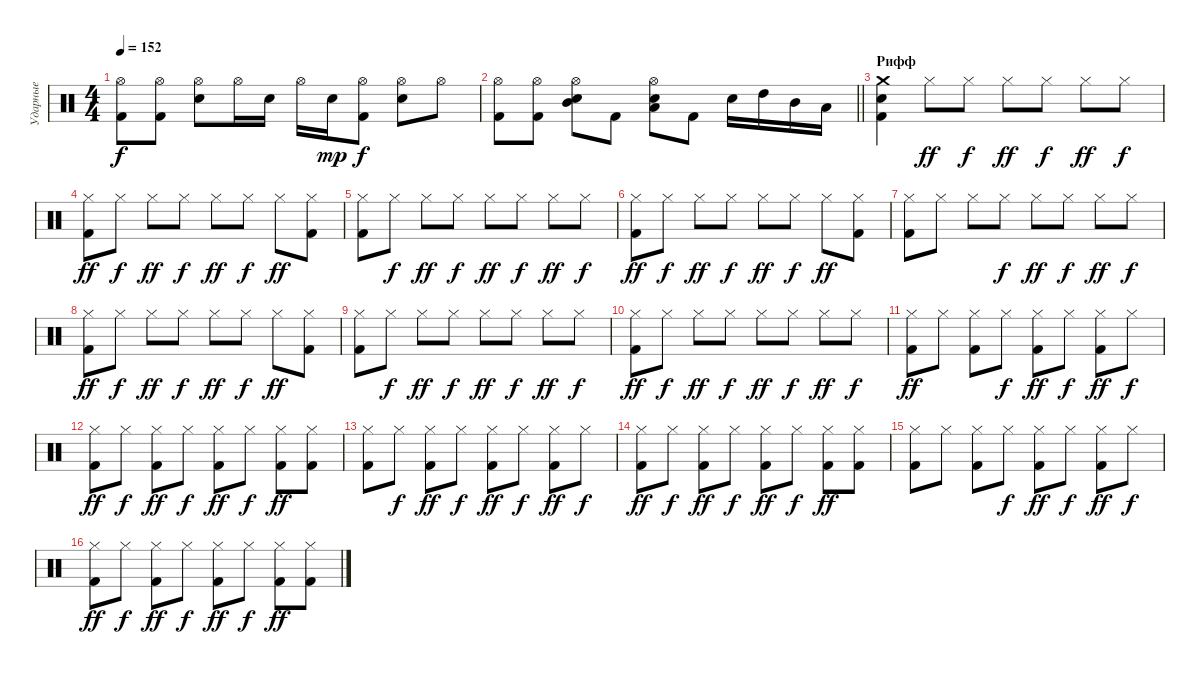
\track ("Ударные" "Ударные") {instrument percussion}
\staff {score}
\articulation defaults
\ts (4 4)
\tempo 152
\clef neutral
\ks c
("Hi-Hat (open)" "Kick (hit) 2").8{dy f} ("Hi-Hat (open)" "Kick (hit) 2").8 ("Hi-Hat (open)" "Snare (hit) 2").8 "Hi-Hat (open)".16 "Snare (hit) 2".16 "Hi-Hat (open)".16 "Snare (hit) 2".16{dy mp} ("Hi-Hat (open)" "Kick (hit) 2").8{dy f} ("Hi-Hat (open)" "Snare (hit) 2").8 "Hi-Hat (open)".8 |
\barLineRight lightlight
("Hi-Hat (open)" "Kick (hit) 2").8 ("Hi-Hat (open)" "Kick (hit) 2").8 ("Hi-Hat (open)" "Snare (hit) 2" "Mid Tom (hit)").8 "Kick (hit) 2".8 ("Hi-Hat (open)" "Snare (hit) 2" "Low Tom (hit)").8 "Kick (hit) 2".8 "Snare (hit) 2".16 "High Tom (hit)".16 "Mid Tom (hit)".16 "Low Tom (hit)".16 |
\section ("" "Рифф")
("Crash medium (hit)" "Snare (hit) 2" "Kick (hit) 2").4 "Hi-Hat (closed)".8{dy ff} "Hi-Hat (closed)".8{dy f} "Hi-Hat (closed)".8{dy ff} "Hi-Hat (closed)".8{dy f} "Hi-Hat (closed)".8{dy ff} "Hi-Hat (closed)".8{dy f} |
("Hi-Hat (closed)" "Kick (hit) 2").8{dy ff} "Hi-Hat (closed)".8{dy f} "Hi-Hat (closed)".8{dy ff} "Hi-Hat (closed)".8{dy f} "Hi-Hat (closed)".8{dy ff} "Hi-Hat (closed)".8{dy f} "Hi-Hat (closed)".8{dy ff} ("Hi-Hat (closed)" "Kick (hit) 2").8 |
("Hi-Hat (closed)" "Kick (hit) 2").8 "Hi-Hat (closed)".8{dy f} "Hi-Hat (closed)".8{dy ff} "Hi-Hat (closed)".8{dy f} "Hi-Hat (closed)".8{dy ff} "Hi-Hat (closed)".8{dy f} "Hi-Hat (closed)".8{dy ff} "Hi-Hat (closed)".8{dy f} |
("Hi-Hat (closed)" "Kick (hit) 2").8{dy ff} "Hi-Hat (closed)".8{dy f} "Hi-Hat (closed)".8{dy ff} "Hi-Hat (closed)".8{dy f} "Hi-Hat (closed)".8{dy ff} "Hi-Hat (closed)".8{dy f} "Hi-Hat (closed)".8{dy ff} ("Hi-Hat (closed)" "Kick (hit) 2").8 |
("Hi-Hat (closed)" "Kick (hit) 2").8 "Hi-Hat (closed)".8 "Hi-Hat (closed)".8 "Hi-Hat (closed)".8{dy f} "Hi-Hat (closed)".8{dy ff} "Hi-Hat (closed)".8{dy f} "Hi-Hat (closed)".8{dy ff} "Hi-Hat (closed)".8{dy f} |
("Hi-Hat (closed)" "Kick (hit) 2").8{dy ff} "Hi-Hat (closed)".8{dy f} "Hi-Hat (closed)".8{dy ff} "Hi-Hat (closed)".8{dy f} "Hi-Hat (closed)".8{dy ff} "Hi-Hat (closed)".8{dy f} "Hi-Hat (closed)".8{dy ff} ("Hi-Hat (closed)" "Kick (hit) 2").8 |
("Hi-Hat (closed)" "Kick (hit) 2").8 "Hi-Hat (closed)".8{dy f} "Hi-Hat (closed)".8{dy ff} "Hi-Hat (closed)".8{dy f} "Hi-Hat (closed)".8{dy ff} "Hi-Hat (closed)".8{dy f} "Hi-Hat (closed)".8{dy ff} "Hi-Hat (closed)".8{dy f} |
("Hi-Hat (closed)" "Kick (hit) 2").8{dy ff} "Hi-Hat (closed)".8{dy f} "Hi-Hat (closed)".8{dy ff} "Hi-Hat (closed)".8{dy f} "Hi-Hat (closed)".8{dy ff} "Hi-Hat (closed)".8{dy f} "Hi-Hat (closed)".8{dy ff} "Hi-Hat (closed)".8{dy f} |
("Hi-Hat (closed)" "Kick (hit) 2").8{dy ff} "Hi-Hat (closed)".8 ("Hi-Hat (closed)" "Kick (hit) 2").8 "Hi-Hat (closed)".8{dy f} ("Hi-Hat (closed)" "Kick (hit) 2").8{dy ff} "Hi-Hat (closed)".8{dy f} ("Hi-Hat (closed)" "Kick (hit) 2").8{dy ff} "Hi-Hat (closed)".8{dy f} |
("Hi-Hat (closed)" "Kick (hit) 2").8{dy ff} "Hi-Hat (closed)".8{dy f} ("Hi-Hat (closed)" "Kick (hit) 2").8{dy ff} "Hi-Hat (closed)".8{dy f} ("Hi-Hat (closed)" "Kick (hit) 2").8{dy ff} "Hi-Hat (closed)".8{dy f} ("Hi-Hat (closed)" "Kick (hit) 2").8{dy ff} ("Hi-Hat (closed)" "Kick (hit) 2").8 |
("Hi-Hat (closed)" "Kick (hit) 2").8 "Hi-Hat (closed)".8{dy f} ("Hi-Hat (closed)" "Kick (hit) 2").8{dy ff} "Hi-Hat (closed)".8{dy f} ("Hi-Hat (closed)" "Kick (hit) 2").8{dy ff} "Hi-Hat (closed)".8{dy f} ("Hi-Hat (closed)" "Kick (hit) 2").8{dy ff} "Hi-Hat (closed)".8{dy f} |
("Hi-Hat (closed)" "Kick (hit) 2").8{dy ff} "Hi-Hat (closed)".8{dy f} ("Hi-Hat (closed)" "Kick (hit) 2").8{dy ff} "Hi-Hat (closed)".8{dy f} ("Hi-Hat (closed)" "Kick (hit) 2").8{dy ff} "Hi-Hat (closed)".8{dy f} ("Hi-Hat (closed)" "Kick (hit) 2").8{dy ff} ("Hi-Hat (closed)" "Kick (hit) 2").8 |
("Hi-Hat (closed)" "Kick (hit) 2").8 "Hi-Hat (closed)".8 ("Hi-Hat (closed)" "Kick (hit) 2").8 "Hi-Hat (closed)".8{dy f} ("Hi-Hat (closed)" "Kick (hit) 2").8{dy ff} "Hi-Hat (closed)".8{dy f} ("Hi-Hat (closed)" "Kick (hit) 2").8{dy ff} "Hi-Hat (closed)".8{dy f} |
("Hi-Hat (closed)" "Kick (hit) 2").8{dy ff} "Hi-Hat (closed)".8{dy f} ("Hi-Hat (closed)" "Kick (hit) 2").8{dy ff} "Hi-Hat (closed)".8{dy f} ("Hi-Hat (closed)" "Kick (hit) 2").8{dy ff} "Hi-Hat (closed)".8{dy f} ("Hi-Hat (closed)" "Kick (hit) 2").8{dy ff} ("Hi-Hat (closed)" "Kick (hit) 2").8
